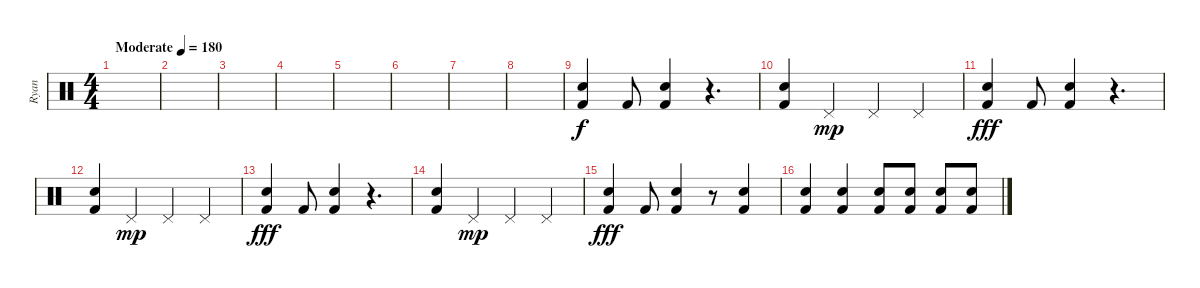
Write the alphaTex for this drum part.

\track ("Ryan" "Ryan") {instrument percussion}
\staff {score}
\articulation defaults
\ts (4 4)
\tempo (180 "Moderate")
\clef neutral
\ks c
|
|
|
|
|
|
|
|
("Kick (hit) 2" "Snare (hit) 2").4 "Kick (hit) 2".8 ("Kick (hit) 2" "Snare (hit) 2").4 r.4{d} |
("Kick (hit) 2" "Snare (hit) 2").4 "Pedal Hi-Hat (hit)".4{dy mp} "Pedal Hi-Hat (hit)".4 "Pedal Hi-Hat (hit)".4 |
("Kick (hit) 2" "Snare (hit) 2").4{dy fff} "Kick (hit) 2".8 ("Kick (hit) 2" "Snare (hit) 2").4 r.4{d} |
("Kick (hit) 2" "Snare (hit) 2").4 "Pedal Hi-Hat (hit)".4{dy mp} "Pedal Hi-Hat (hit)".4 "Pedal Hi-Hat (hit)".4 |
("Kick (hit) 2" "Snare (hit) 2").4{dy fff} "Kick (hit) 2".8 ("Kick (hit) 2" "Snare (hit) 2").4 r.4{d} |
("Kick (hit) 2" "Snare (hit) 2").4 "Pedal Hi-Hat (hit)".4{dy mp} "Pedal Hi-Hat (hit)".4 "Pedal Hi-Hat (hit)".4 |
("Kick (hit) 2" "Snare (hit) 2").4{dy fff} "Kick (hit) 2".8 ("Kick (hit) 2" "Snare (hit) 2").4 r.8 ("Kick (hit) 2" "Snare (hit) 2").4 |
("Kick (hit) 2" "Snare (hit) 2").4 ("Kick (hit) 2" "Snare (hit) 2").4 ("Kick (hit) 2" "Snare (hit) 2").8 ("Kick (hit) 2" "Snare (hit) 2").8 ("Kick (hit) 2" "Snare (hit) 2").8 ("Kick (hit) 2" "Snare (hit) 2").8
